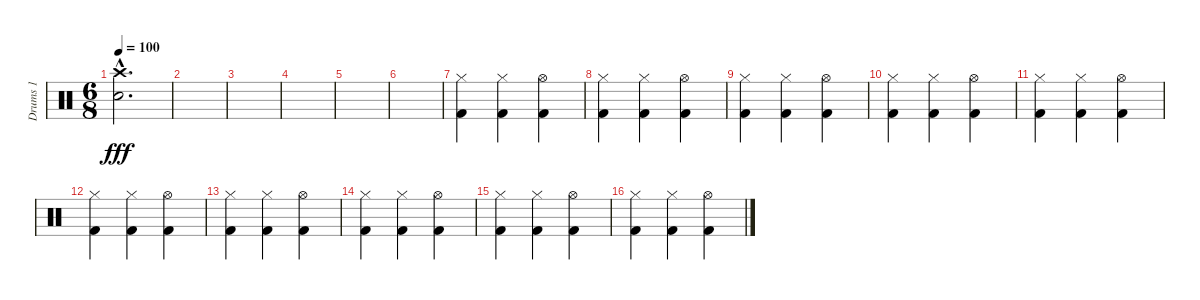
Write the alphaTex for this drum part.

\track ("Drums 1" "Drums 1") {instrument percussion}
\staff {score}
\articulation defaults
\ts (6 8)
\tempo 100
\clef neutral
\ks c
("Snare (hit) 2"{hac} "Crash high (hit)"{hac}).2{d dy fff} |
|
|
|
|
|
("Kick (hit) 2" "Hi-Hat (closed)").4 ("Kick (hit) 2" "Hi-Hat (closed)").4 ("Kick (hit) 2" "Hi-Hat (open)").4 |
("Kick (hit) 2" "Hi-Hat (closed)").4 ("Kick (hit) 2" "Hi-Hat (closed)").4 ("Kick (hit) 2" "Hi-Hat (open)").4 |
("Kick (hit) 2" "Hi-Hat (closed)").4 ("Kick (hit) 2" "Hi-Hat (closed)").4 ("Kick (hit) 2" "Hi-Hat (open)").4 |
("Kick (hit) 2" "Hi-Hat (closed)").4 ("Kick (hit) 2" "Hi-Hat (closed)").4 ("Kick (hit) 2" "Hi-Hat (open)").4 |
("Kick (hit) 2" "Hi-Hat (closed)").4 ("Kick (hit) 2" "Hi-Hat (closed)").4 ("Kick (hit) 2" "Hi-Hat (open)").4 |
("Kick (hit) 2" "Hi-Hat (closed)").4 ("Kick (hit) 2" "Hi-Hat (closed)").4 ("Kick (hit) 2" "Hi-Hat (open)").4 |
("Kick (hit) 2" "Hi-Hat (closed)").4 ("Kick (hit) 2" "Hi-Hat (closed)").4 ("Kick (hit) 2" "Hi-Hat (open)").4 |
("Kick (hit) 2" "Hi-Hat (closed)").4 ("Kick (hit) 2" "Hi-Hat (closed)").4 ("Kick (hit) 2" "Hi-Hat (open)").4 |
("Kick (hit) 2" "Hi-Hat (closed)").4 ("Kick (hit) 2" "Hi-Hat (closed)").4 ("Kick (hit) 2" "Hi-Hat (open)").4 |
("Kick (hit) 2" "Hi-Hat (closed)").4 ("Kick (hit) 2" "Hi-Hat (closed)").4 ("Kick (hit) 2" "Hi-Hat (open)").4
